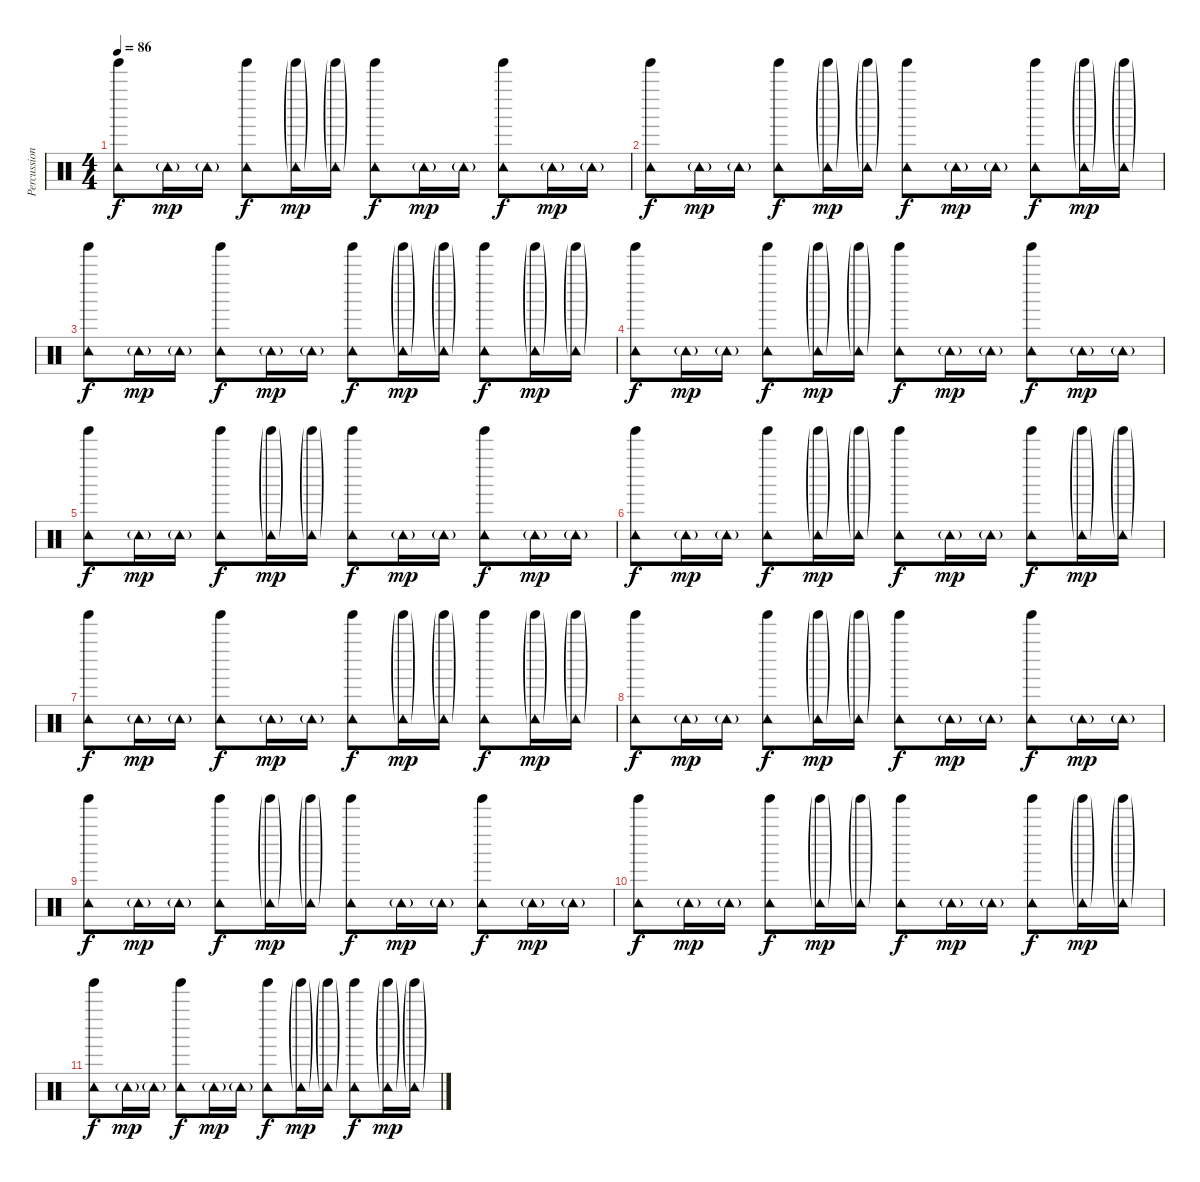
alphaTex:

\track ("Percussion 1" "Percussion") {instrument percussion}
\staff {score}
\articulation defaults
\ts (4 4)
\tempo 86
\clef neutral
\ks c
("Tinkle Bell (hit)" "Tambourine (hit)").8{dy f} "Tambourine (hit)"{g}.16{dy mp} "Tambourine (hit)"{g}.16 ("Tinkle Bell (hit)" "Tambourine (hit)").8{dy f} ("Tinkle Bell (hit)"{g} "Tambourine (hit)"{g}).16{dy mp} ("Tinkle Bell (hit)"{g} "Tambourine (hit)"{g}).16 ("Tinkle Bell (hit)" "Tambourine (hit)").8{dy f} "Tambourine (hit)"{g}.16{dy mp} "Tambourine (hit)"{g}.16 ("Tinkle Bell (hit)" "Tambourine (hit)").8{dy f} "Tambourine (hit)"{g}.16{dy mp} "Tambourine (hit)"{g}.16 |
("Tinkle Bell (hit)" "Tambourine (hit)").8{dy f} "Tambourine (hit)"{g}.16{dy mp} "Tambourine (hit)"{g}.16 ("Tinkle Bell (hit)" "Tambourine (hit)").8{dy f} ("Tinkle Bell (hit)"{g} "Tambourine (hit)"{g}).16{dy mp} ("Tinkle Bell (hit)"{g} "Tambourine (hit)"{g}).16 ("Tinkle Bell (hit)" "Tambourine (hit)").8{dy f} "Tambourine (hit)"{g}.16{dy mp} "Tambourine (hit)"{g}.16 ("Tinkle Bell (hit)" "Tambourine (hit)").8{dy f} ("Tinkle Bell (hit)"{g} "Tambourine (hit)"{g}).16{dy mp} ("Tinkle Bell (hit)"{g} "Tambourine (hit)"{g}).16 |
("Tinkle Bell (hit)" "Tambourine (hit)").8{dy f} "Tambourine (hit)"{g}.16{dy mp} "Tambourine (hit)"{g}.16 ("Tinkle Bell (hit)" "Tambourine (hit)").8{dy f} "Tambourine (hit)"{g}.16{dy mp} "Tambourine (hit)"{g}.16 ("Tinkle Bell (hit)" "Tambourine (hit)").8{dy f} ("Tinkle Bell (hit)"{g} "Tambourine (hit)"{g}).16{dy mp} ("Tinkle Bell (hit)"{g} "Tambourine (hit)"{g}).16 ("Tinkle Bell (hit)" "Tambourine (hit)").8{dy f} ("Tinkle Bell (hit)"{g} "Tambourine (hit)"{g}).16{dy mp} ("Tinkle Bell (hit)"{g} "Tambourine (hit)"{g}).16 |
("Tinkle Bell (hit)" "Tambourine (hit)").8{dy f} "Tambourine (hit)"{g}.16{dy mp} "Tambourine (hit)"{g}.16 ("Tinkle Bell (hit)" "Tambourine (hit)").8{dy f} ("Tinkle Bell (hit)"{g} "Tambourine (hit)"{g}).16{dy mp} ("Tinkle Bell (hit)"{g} "Tambourine (hit)"{g}).16 ("Tinkle Bell (hit)" "Tambourine (hit)").8{dy f} "Tambourine (hit)"{g}.16{dy mp} "Tambourine (hit)"{g}.16 ("Tinkle Bell (hit)" "Tambourine (hit)").8{dy f} "Tambourine (hit)"{g}.16{dy mp} "Tambourine (hit)"{g}.16 |
("Tinkle Bell (hit)" "Tambourine (hit)").8{dy f} "Tambourine (hit)"{g}.16{dy mp} "Tambourine (hit)"{g}.16 ("Tinkle Bell (hit)" "Tambourine (hit)").8{dy f} ("Tinkle Bell (hit)"{g} "Tambourine (hit)"{g}).16{dy mp} ("Tinkle Bell (hit)"{g} "Tambourine (hit)"{g}).16 ("Tinkle Bell (hit)" "Tambourine (hit)").8{dy f} "Tambourine (hit)"{g}.16{dy mp} "Tambourine (hit)"{g}.16 ("Tinkle Bell (hit)" "Tambourine (hit)").8{dy f} "Tambourine (hit)"{g}.16{dy mp} "Tambourine (hit)"{g}.16 |
("Tinkle Bell (hit)" "Tambourine (hit)").8{dy f} "Tambourine (hit)"{g}.16{dy mp} "Tambourine (hit)"{g}.16 ("Tinkle Bell (hit)" "Tambourine (hit)").8{dy f} ("Tinkle Bell (hit)"{g} "Tambourine (hit)"{g}).16{dy mp} ("Tinkle Bell (hit)"{g} "Tambourine (hit)"{g}).16 ("Tinkle Bell (hit)" "Tambourine (hit)").8{dy f} "Tambourine (hit)"{g}.16{dy mp} "Tambourine (hit)"{g}.16 ("Tinkle Bell (hit)" "Tambourine (hit)").8{dy f} ("Tinkle Bell (hit)"{g} "Tambourine (hit)"{g}).16{dy mp} ("Tinkle Bell (hit)"{g} "Tambourine (hit)"{g}).16 |
("Tinkle Bell (hit)" "Tambourine (hit)").8{dy f} "Tambourine (hit)"{g}.16{dy mp} "Tambourine (hit)"{g}.16 ("Tinkle Bell (hit)" "Tambourine (hit)").8{dy f} "Tambourine (hit)"{g}.16{dy mp} "Tambourine (hit)"{g}.16 ("Tinkle Bell (hit)" "Tambourine (hit)").8{dy f} ("Tinkle Bell (hit)"{g} "Tambourine (hit)"{g}).16{dy mp} ("Tinkle Bell (hit)"{g} "Tambourine (hit)"{g}).16 ("Tinkle Bell (hit)" "Tambourine (hit)").8{dy f} ("Tinkle Bell (hit)"{g} "Tambourine (hit)"{g}).16{dy mp} ("Tinkle Bell (hit)"{g} "Tambourine (hit)"{g}).16 |
("Tinkle Bell (hit)" "Tambourine (hit)").8{dy f} "Tambourine (hit)"{g}.16{dy mp} "Tambourine (hit)"{g}.16 ("Tinkle Bell (hit)" "Tambourine (hit)").8{dy f} ("Tinkle Bell (hit)"{g} "Tambourine (hit)"{g}).16{dy mp} ("Tinkle Bell (hit)"{g} "Tambourine (hit)"{g}).16 ("Tinkle Bell (hit)" "Tambourine (hit)").8{dy f} "Tambourine (hit)"{g}.16{dy mp} "Tambourine (hit)"{g}.16 ("Tinkle Bell (hit)" "Tambourine (hit)").8{dy f} "Tambourine (hit)"{g}.16{dy mp} "Tambourine (hit)"{g}.16 |
("Tinkle Bell (hit)" "Tambourine (hit)").8{dy f} "Tambourine (hit)"{g}.16{dy mp} "Tambourine (hit)"{g}.16 ("Tinkle Bell (hit)" "Tambourine (hit)").8{dy f} ("Tinkle Bell (hit)"{g} "Tambourine (hit)"{g}).16{dy mp} ("Tinkle Bell (hit)"{g} "Tambourine (hit)"{g}).16 ("Tinkle Bell (hit)" "Tambourine (hit)").8{dy f} "Tambourine (hit)"{g}.16{dy mp} "Tambourine (hit)"{g}.16 ("Tinkle Bell (hit)" "Tambourine (hit)").8{dy f} "Tambourine (hit)"{g}.16{dy mp} "Tambourine (hit)"{g}.16 |
("Tinkle Bell (hit)" "Tambourine (hit)").8{dy f} "Tambourine (hit)"{g}.16{dy mp} "Tambourine (hit)"{g}.16 ("Tinkle Bell (hit)" "Tambourine (hit)").8{dy f} ("Tinkle Bell (hit)"{g} "Tambourine (hit)"{g}).16{dy mp} ("Tinkle Bell (hit)"{g} "Tambourine (hit)"{g}).16 ("Tinkle Bell (hit)" "Tambourine (hit)").8{dy f} "Tambourine (hit)"{g}.16{dy mp} "Tambourine (hit)"{g}.16 ("Tinkle Bell (hit)" "Tambourine (hit)").8{dy f} ("Tinkle Bell (hit)"{g} "Tambourine (hit)"{g}).16{dy mp} ("Tinkle Bell (hit)"{g} "Tambourine (hit)"{g}).16 |
("Tinkle Bell (hit)" "Tambourine (hit)").8{dy f} "Tambourine (hit)"{g}.16{dy mp} "Tambourine (hit)"{g}.16 ("Tinkle Bell (hit)" "Tambourine (hit)").8{dy f} "Tambourine (hit)"{g}.16{dy mp} "Tambourine (hit)"{g}.16 ("Tinkle Bell (hit)" "Tambourine (hit)").8{dy f} ("Tinkle Bell (hit)"{g} "Tambourine (hit)"{g}).16{dy mp} ("Tinkle Bell (hit)"{g} "Tambourine (hit)"{g}).16 ("Tinkle Bell (hit)" "Tambourine (hit)").8{dy f} ("Tinkle Bell (hit)"{g} "Tambourine (hit)"{g}).16{dy mp} ("Tinkle Bell (hit)"{g} "Tambourine (hit)"{g}).16
